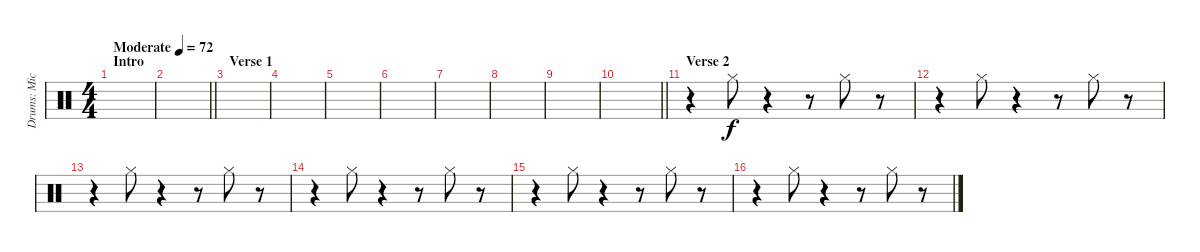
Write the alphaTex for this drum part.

\track ("Drums: Michael Botts" "Drums: Mic") {instrument percussion}
\staff {score}
\articulation defaults
\ts (4 4)
\section ("" "Intro")
\tempo (72 "Moderate")
\clef neutral
\ks c
|
\barLineRight lightlight
|
\section ("" "Verse 1")
|
|
|
|
|
|
|
\barLineRight lightlight
|
\section ("" "Verse 2")
r.4 "Hi-Hat (closed)".8 r.4 r.8 "Hi-Hat (closed)".8 r.8 |
r.4 "Hi-Hat (closed)".8 r.4 r.8 "Hi-Hat (closed)".8 r.8 |
r.4 "Hi-Hat (closed)".8 r.4 r.8 "Hi-Hat (closed)".8 r.8 |
r.4 "Hi-Hat (closed)".8 r.4 r.8 "Hi-Hat (closed)".8 r.8 |
r.4 "Hi-Hat (closed)".8 r.4 r.8 "Hi-Hat (closed)".8 r.8 |
r.4 "Hi-Hat (closed)".8 r.4 r.8 "Hi-Hat (closed)".8 r.8
